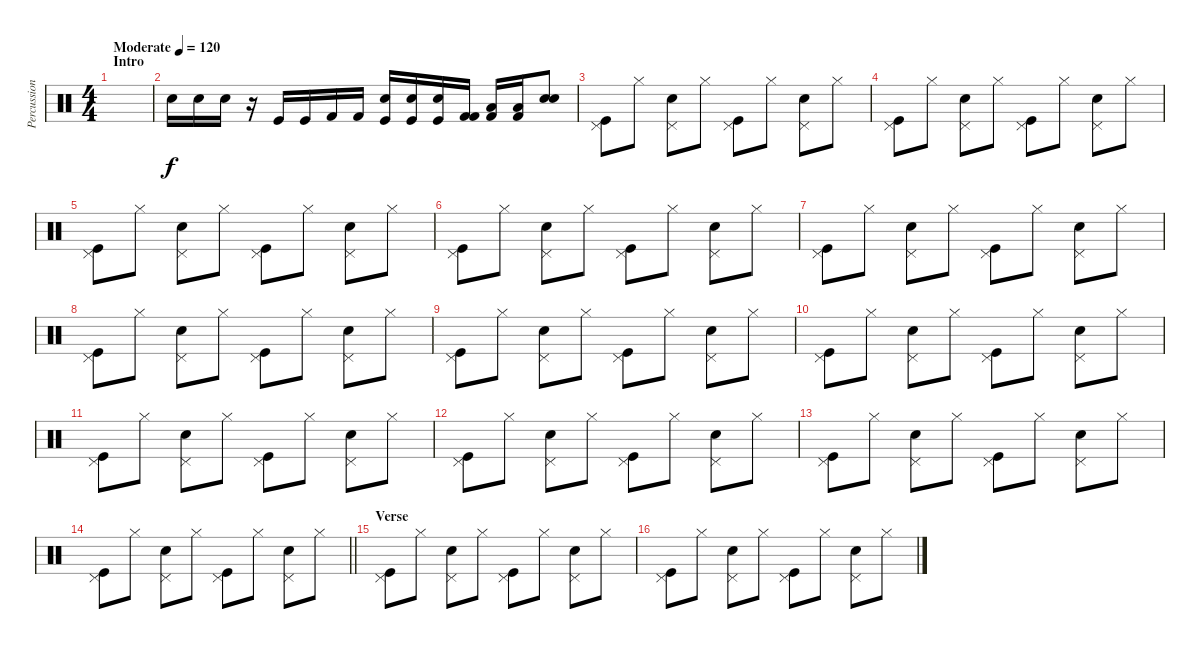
\track ("Percussion - Ian Astbury" "Percussion") {instrument percussion}
\staff {score}
\articulation defaults
\ts (4 4)
\section ("" "Intro")
\tempo (120 "Moderate")
\clef neutral
\ks c
|
"Electric Snare (hit)".16 "Electric Snare (hit)".16 "Electric Snare (hit)".16 r.16 "Kick (hit)".16 "Kick (hit)".16 "Kick (hit) 2".16 "Kick (hit) 2".16 ("Kick (hit)" "Electric Snare (hit)").16 ("Kick (hit)" "Electric Snare (hit)").16 ("Kick (hit)" "Electric Snare (hit)").16 ("Kick (hit) 2" "Kick (hit) 2").16 ("Kick (hit) 2" "Low Floor Tom (hit)").16 ("Kick (hit) 2" "Low Floor Tom (hit)").16 ("Electric Snare (hit)" "Electric Snare (hit)").8 |
("Pedal Hi-Hat (hit)" "Kick (hit)").8 "Hi-Hat (closed)".8 ("Pedal Hi-Hat (hit)" "Electric Snare (hit)").8 "Hi-Hat (closed)".8 ("Pedal Hi-Hat (hit)" "Kick (hit)").8 "Hi-Hat (closed)".8 ("Pedal Hi-Hat (hit)" "Electric Snare (hit)").8 "Hi-Hat (closed)".8 |
("Pedal Hi-Hat (hit)" "Kick (hit)").8 "Hi-Hat (closed)".8 ("Pedal Hi-Hat (hit)" "Electric Snare (hit)").8 "Hi-Hat (closed)".8 ("Pedal Hi-Hat (hit)" "Kick (hit)").8 "Hi-Hat (closed)".8 ("Pedal Hi-Hat (hit)" "Electric Snare (hit)").8 "Hi-Hat (closed)".8 |
("Pedal Hi-Hat (hit)" "Kick (hit)").8 "Hi-Hat (closed)".8 ("Pedal Hi-Hat (hit)" "Electric Snare (hit)").8 "Hi-Hat (closed)".8 ("Pedal Hi-Hat (hit)" "Kick (hit)").8 "Hi-Hat (closed)".8 ("Pedal Hi-Hat (hit)" "Electric Snare (hit)").8 "Hi-Hat (closed)".8 |
("Pedal Hi-Hat (hit)" "Kick (hit)").8 "Hi-Hat (closed)".8 ("Pedal Hi-Hat (hit)" "Electric Snare (hit)").8 "Hi-Hat (closed)".8 ("Pedal Hi-Hat (hit)" "Kick (hit)").8 "Hi-Hat (closed)".8 ("Pedal Hi-Hat (hit)" "Electric Snare (hit)").8 "Hi-Hat (closed)".8 |
("Pedal Hi-Hat (hit)" "Kick (hit)").8 "Hi-Hat (closed)".8 ("Pedal Hi-Hat (hit)" "Electric Snare (hit)").8 "Hi-Hat (closed)".8 ("Pedal Hi-Hat (hit)" "Kick (hit)").8 "Hi-Hat (closed)".8 ("Pedal Hi-Hat (hit)" "Electric Snare (hit)").8 "Hi-Hat (closed)".8 |
("Pedal Hi-Hat (hit)" "Kick (hit)").8 "Hi-Hat (closed)".8 ("Pedal Hi-Hat (hit)" "Electric Snare (hit)").8 "Hi-Hat (closed)".8 ("Pedal Hi-Hat (hit)" "Kick (hit)").8 "Hi-Hat (closed)".8 ("Pedal Hi-Hat (hit)" "Electric Snare (hit)").8 "Hi-Hat (closed)".8 |
("Pedal Hi-Hat (hit)" "Kick (hit)").8 "Hi-Hat (closed)".8 ("Pedal Hi-Hat (hit)" "Electric Snare (hit)").8 "Hi-Hat (closed)".8 ("Pedal Hi-Hat (hit)" "Kick (hit)").8 "Hi-Hat (closed)".8 ("Pedal Hi-Hat (hit)" "Electric Snare (hit)").8 "Hi-Hat (closed)".8 |
("Pedal Hi-Hat (hit)" "Kick (hit)").8 "Hi-Hat (closed)".8 ("Pedal Hi-Hat (hit)" "Electric Snare (hit)").8 "Hi-Hat (closed)".8 ("Pedal Hi-Hat (hit)" "Kick (hit)").8 "Hi-Hat (closed)".8 ("Pedal Hi-Hat (hit)" "Electric Snare (hit)").8 "Hi-Hat (closed)".8 |
("Pedal Hi-Hat (hit)" "Kick (hit)").8 "Hi-Hat (closed)".8 ("Pedal Hi-Hat (hit)" "Electric Snare (hit)").8 "Hi-Hat (closed)".8 ("Pedal Hi-Hat (hit)" "Kick (hit)").8 "Hi-Hat (closed)".8 ("Pedal Hi-Hat (hit)" "Electric Snare (hit)").8 "Hi-Hat (closed)".8 |
("Pedal Hi-Hat (hit)" "Kick (hit)").8 "Hi-Hat (closed)".8 ("Pedal Hi-Hat (hit)" "Electric Snare (hit)").8 "Hi-Hat (closed)".8 ("Pedal Hi-Hat (hit)" "Kick (hit)").8 "Hi-Hat (closed)".8 ("Pedal Hi-Hat (hit)" "Electric Snare (hit)").8 "Hi-Hat (closed)".8 |
("Pedal Hi-Hat (hit)" "Kick (hit)").8 "Hi-Hat (closed)".8 ("Pedal Hi-Hat (hit)" "Electric Snare (hit)").8 "Hi-Hat (closed)".8 ("Pedal Hi-Hat (hit)" "Kick (hit)").8 "Hi-Hat (closed)".8 ("Pedal Hi-Hat (hit)" "Electric Snare (hit)").8 "Hi-Hat (closed)".8 |
\barLineRight lightlight
("Pedal Hi-Hat (hit)" "Kick (hit)").8 "Hi-Hat (closed)".8 ("Pedal Hi-Hat (hit)" "Electric Snare (hit)").8 "Hi-Hat (closed)".8 ("Pedal Hi-Hat (hit)" "Kick (hit)").8 "Hi-Hat (closed)".8 ("Pedal Hi-Hat (hit)" "Electric Snare (hit)").8 "Hi-Hat (closed)".8 |
\section ("" "Verse")
("Pedal Hi-Hat (hit)" "Kick (hit)").8 "Hi-Hat (closed)".8 ("Pedal Hi-Hat (hit)" "Electric Snare (hit)").8 "Hi-Hat (closed)".8 ("Pedal Hi-Hat (hit)" "Kick (hit)").8 "Hi-Hat (closed)".8 ("Pedal Hi-Hat (hit)" "Electric Snare (hit)").8 "Hi-Hat (closed)".8 |
("Pedal Hi-Hat (hit)" "Kick (hit)").8 "Hi-Hat (closed)".8 ("Pedal Hi-Hat (hit)" "Electric Snare (hit)").8 "Hi-Hat (closed)".8 ("Pedal Hi-Hat (hit)" "Kick (hit)").8 "Hi-Hat (closed)".8 ("Pedal Hi-Hat (hit)" "Electric Snare (hit)").8 "Hi-Hat (closed)".8
